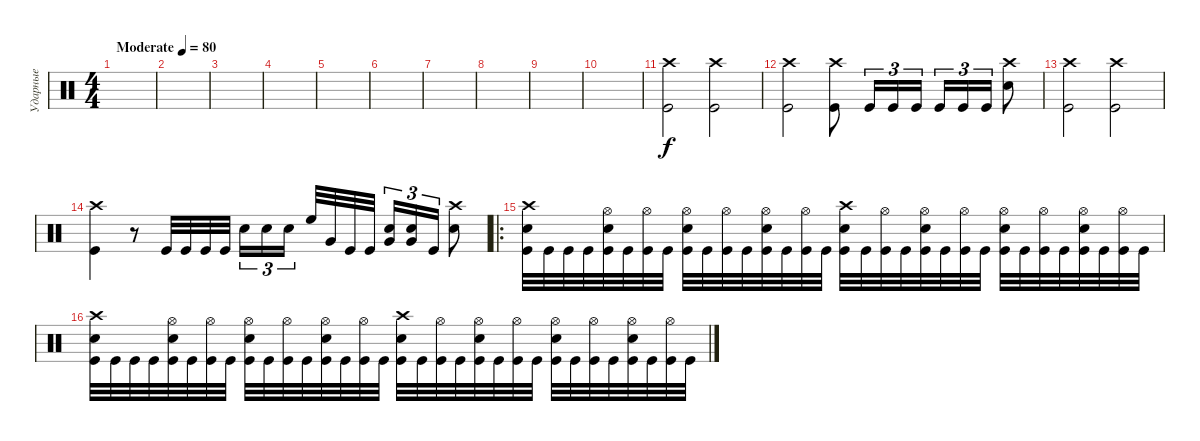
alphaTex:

\track ("Ударные" "Ударные") {instrument percussion}
\staff {score}
\articulation defaults
\ts (4 4)
\tempo (80 "Moderate")
\clef neutral
\ks c
|
|
|
|
|
|
|
|
|
|
("Crash high (hit)" "Kick (hit)").2 ("Kick (hit)" "Crash high (hit)").2 |
("Crash high (hit)" "Kick (hit)").2 ("Kick (hit)" "Crash high (hit)").8 "Kick (hit)".16{tu (3 2)} "Kick (hit)".16{tu (3 2)} "Kick (hit)".16{tu (3 2)} "Kick (hit)".16{tu (3 2)} "Kick (hit)".16{tu (3 2)} "Kick (hit)".16{tu (3 2)} ("Crash high (hit)" "Snare (hit) 2").8 |
("Crash high (hit)" "Kick (hit)").2 ("Kick (hit)" "Crash high (hit)").2 |
("Kick (hit)" "Crash high (hit)").4 r.8 "Kick (hit)".32 "Kick (hit)".32 "Kick (hit)".32 "Kick (hit)".32 "Snare (hit) 2".16{tu (3 2)} "Snare (hit) 2".16{tu (3 2)} "Snare (hit) 2".16{tu (3 2) beam splitsecondary} "High Floor Tom (hit)".32 "Very Low Tom (hit)".32 "Kick (hit)".32 "Kick (hit)".32 ("Very Low Tom (hit)" "Snare (hit) 2").16{tu (3 2)} ("Very Low Tom (hit)" "Snare (hit) 2").16{tu (3 2)} "Kick (hit)".16{tu (3 2)} ("Snare (hit) 2" "Crash high (hit)").8 |
\ro
("Crash high (hit)" "Snare (hit) 2" "Kick (hit)").32 "Kick (hit)".32 "Kick (hit)".32 "Kick (hit)".32 ("Hi-Hat (open)" "Snare (hit) 2" "Kick (hit)").32 "Kick (hit)".32 ("Hi-Hat (open)" "Kick (hit)").32 "Kick (hit)".32 ("Hi-Hat (open)" "Snare (hit) 2" "Kick (hit)").32 "Kick (hit)".32 ("Hi-Hat (open)" "Kick (hit)").32 "Kick (hit)".32 ("Hi-Hat (open)" "Snare (hit) 2" "Kick (hit)").32 "Kick (hit)".32 ("Hi-Hat (open)" "Kick (hit)").32 "Kick (hit)".32 ("Crash high (hit)" "Snare (hit) 2" "Kick (hit)").32 "Kick (hit)".32 ("Hi-Hat (open)" "Kick (hit)").32 "Kick (hit)".32 ("Hi-Hat (open)" "Snare (hit) 2" "Kick (hit)").32 "Kick (hit)".32 ("Hi-Hat (open)" "Kick (hit)").32 "Kick (hit)".32 ("Hi-Hat (open)" "Snare (hit) 2" "Kick (hit)").32 "Kick (hit)".32 ("Hi-Hat (open)" "Kick (hit)").32 "Kick (hit)".32 ("Hi-Hat (open)" "Snare (hit) 2" "Kick (hit)").32 "Kick (hit)".32 ("Hi-Hat (open)" "Kick (hit)").32 "Kick (hit)".32 |
("Crash high (hit)" "Snare (hit) 2" "Kick (hit)").32 "Kick (hit)".32 "Kick (hit)".32 "Kick (hit)".32 ("Hi-Hat (open)" "Snare (hit) 2" "Kick (hit)").32 "Kick (hit)".32 ("Hi-Hat (open)" "Kick (hit)").32 "Kick (hit)".32 ("Hi-Hat (open)" "Snare (hit) 2" "Kick (hit)").32 "Kick (hit)".32 ("Hi-Hat (open)" "Kick (hit)").32 "Kick (hit)".32 ("Hi-Hat (open)" "Snare (hit) 2" "Kick (hit)").32 "Kick (hit)".32 ("Hi-Hat (open)" "Kick (hit)").32 "Kick (hit)".32 ("Crash high (hit)" "Snare (hit) 2" "Kick (hit)").32 "Kick (hit)".32 ("Hi-Hat (open)" "Kick (hit)").32 "Kick (hit)".32 ("Hi-Hat (open)" "Snare (hit) 2" "Kick (hit)").32 "Kick (hit)".32 ("Hi-Hat (open)" "Kick (hit)").32 "Kick (hit)".32 ("Hi-Hat (open)" "Snare (hit) 2" "Kick (hit)").32 "Kick (hit)".32 ("Hi-Hat (open)" "Kick (hit)").32 "Kick (hit)".32 ("Hi-Hat (open)" "Snare (hit) 2" "Kick (hit)").32 "Kick (hit)".32 ("Hi-Hat (open)" "Kick (hit)").32 "Kick (hit)".32
